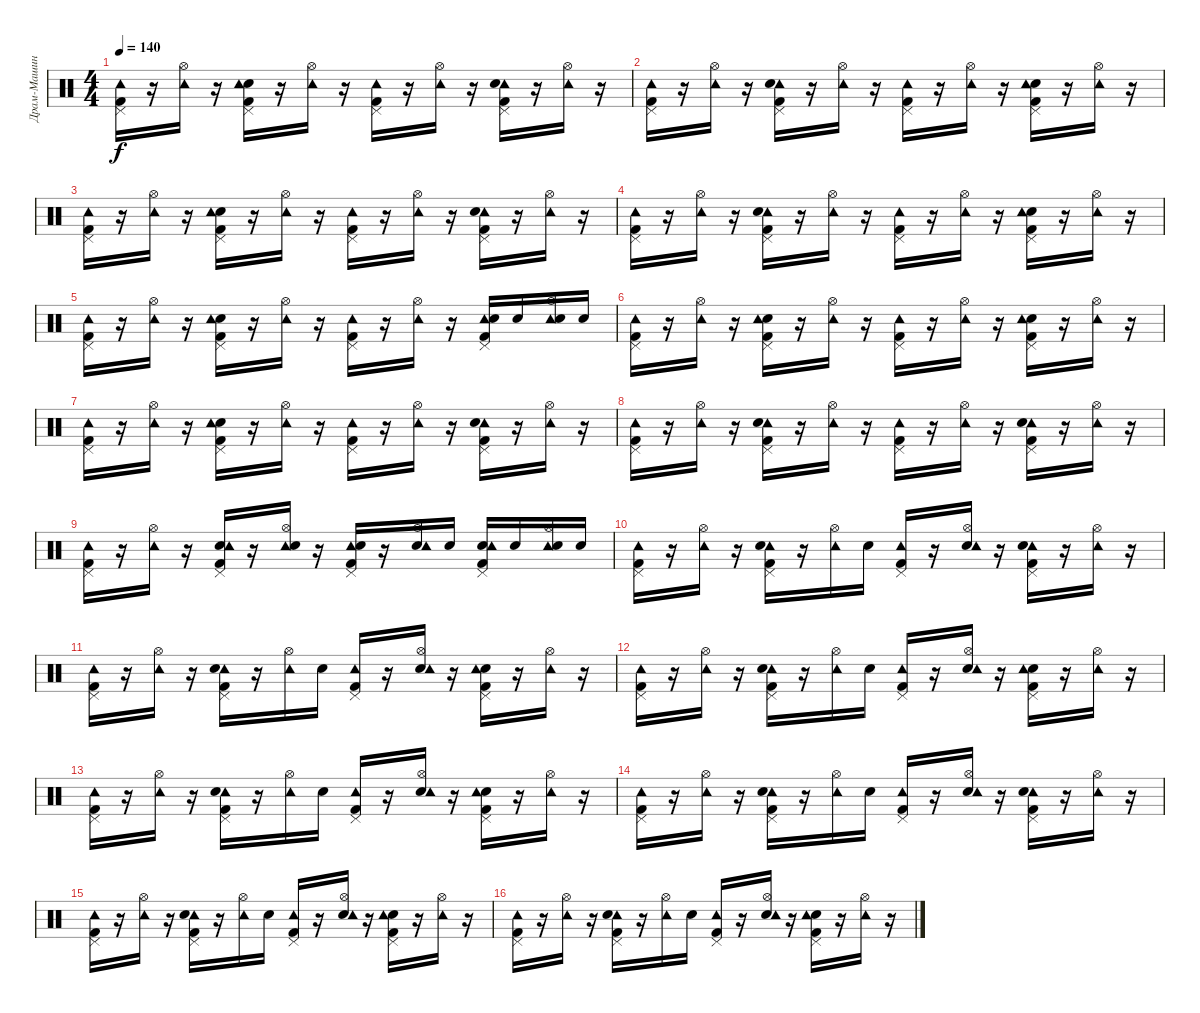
\track ("Драм-Машина" "Драм-Машин") {instrument percussion}
\staff {score}
\articulation defaults
\ts (4 4)
\tempo 140
\clef neutral
\ks c
("Pedal Hi-Hat (hit)" "Kick (hit) 2" "Tambourine (hit)").16{dy f} r.16 ("Hi-Hat (open)" "Tambourine (hit)").16 r.16 ("Pedal Hi-Hat (hit)" "Kick (hit) 2" "Snare (hit) 2" "Tambourine (hit)").16 r.16 ("Tambourine (hit)" "Hi-Hat (open)").16 r.16 ("Tambourine (hit)" "Pedal Hi-Hat (hit)" "Kick (hit) 2").16 r.16 ("Hi-Hat (open)" "Tambourine (hit)").16 r.16 ("Kick (hit) 2" "Tambourine (hit)" "Snare (hit) 2" "Pedal Hi-Hat (hit)").16 r.16 ("Tambourine (hit)" "Hi-Hat (open)").16 r.16 |
("Pedal Hi-Hat (hit)" "Tambourine (hit)" "Kick (hit) 2").16 r.16 ("Tambourine (hit)" "Hi-Hat (open)").16 r.16 ("Kick (hit) 2" "Tambourine (hit)" "Snare (hit) 2" "Pedal Hi-Hat (hit)").16 r.16 ("Hi-Hat (open)" "Tambourine (hit)").16 r.16 ("Pedal Hi-Hat (hit)" "Tambourine (hit)" "Kick (hit) 2").16 r.16 ("Hi-Hat (open)" "Tambourine (hit)").16 r.16 ("Kick (hit) 2" "Snare (hit) 2" "Pedal Hi-Hat (hit)" "Tambourine (hit)").16 r.16 ("Hi-Hat (open)" "Tambourine (hit)").16 r.16 |
("Pedal Hi-Hat (hit)" "Kick (hit) 2" "Tambourine (hit)").16 r.16 ("Hi-Hat (open)" "Tambourine (hit)").16 r.16 ("Pedal Hi-Hat (hit)" "Kick (hit) 2" "Snare (hit) 2" "Tambourine (hit)").16 r.16 ("Tambourine (hit)" "Hi-Hat (open)").16 r.16 ("Tambourine (hit)" "Pedal Hi-Hat (hit)" "Kick (hit) 2").16 r.16 ("Hi-Hat (open)" "Tambourine (hit)").16 r.16 ("Kick (hit) 2" "Tambourine (hit)" "Snare (hit) 2" "Pedal Hi-Hat (hit)").16 r.16 ("Tambourine (hit)" "Hi-Hat (open)").16 r.16 |
("Pedal Hi-Hat (hit)" "Tambourine (hit)" "Kick (hit) 2").16 r.16 ("Tambourine (hit)" "Hi-Hat (open)").16 r.16 ("Kick (hit) 2" "Tambourine (hit)" "Snare (hit) 2" "Pedal Hi-Hat (hit)").16 r.16 ("Hi-Hat (open)" "Tambourine (hit)").16 r.16 ("Pedal Hi-Hat (hit)" "Tambourine (hit)" "Kick (hit) 2").16 r.16 ("Hi-Hat (open)" "Tambourine (hit)").16 r.16 ("Kick (hit) 2" "Snare (hit) 2" "Pedal Hi-Hat (hit)" "Tambourine (hit)").16 r.16 ("Hi-Hat (open)" "Tambourine (hit)").16 r.16 |
("Pedal Hi-Hat (hit)" "Kick (hit) 2" "Tambourine (hit)").16 r.16 ("Hi-Hat (open)" "Tambourine (hit)").16 r.16 ("Pedal Hi-Hat (hit)" "Kick (hit) 2" "Snare (hit) 2" "Tambourine (hit)").16 r.16 ("Tambourine (hit)" "Hi-Hat (open)").16 r.16 ("Tambourine (hit)" "Pedal Hi-Hat (hit)" "Kick (hit) 2").16 r.16 ("Hi-Hat (open)" "Tambourine (hit)").16 r.16 ("Kick (hit) 2" "Tambourine (hit)" "Snare (hit) 2" "Pedal Hi-Hat (hit)").16 "Snare (hit) 2".16 ("Hi-Hat (open)" "Tambourine (hit)" "Snare (hit) 2").16 "Snare (hit) 2".16 |
("Pedal Hi-Hat (hit)" "Tambourine (hit)" "Kick (hit) 2").16 r.16 ("Tambourine (hit)" "Hi-Hat (open)").16 r.16 ("Snare (hit) 2" "Kick (hit) 2" "Tambourine (hit)" "Pedal Hi-Hat (hit)").16 r.16 ("Hi-Hat (open)" "Tambourine (hit)").16 r.16 ("Kick (hit) 2" "Pedal Hi-Hat (hit)" "Tambourine (hit)").16 r.16 ("Hi-Hat (open)" "Tambourine (hit)").16 r.16 ("Kick (hit) 2" "Snare (hit) 2" "Pedal Hi-Hat (hit)" "Tambourine (hit)").16 r.16 ("Tambourine (hit)" "Hi-Hat (open)").16 r.16 |
("Pedal Hi-Hat (hit)" "Kick (hit) 2" "Tambourine (hit)").16 r.16 ("Hi-Hat (open)" "Tambourine (hit)").16 r.16 ("Kick (hit) 2" "Pedal Hi-Hat (hit)" "Snare (hit) 2" "Tambourine (hit)").16 r.16 ("Tambourine (hit)" "Hi-Hat (open)").16 r.16 ("Kick (hit) 2" "Tambourine (hit)" "Pedal Hi-Hat (hit)").16 r.16 ("Hi-Hat (open)" "Tambourine (hit)").16 r.16 ("Kick (hit) 2" "Pedal Hi-Hat (hit)" "Tambourine (hit)" "Snare (hit) 2").16 r.16 ("Tambourine (hit)" "Hi-Hat (open)").16 r.16 |
("Pedal Hi-Hat (hit)" "Tambourine (hit)" "Kick (hit) 2").16 r.16 ("Hi-Hat (open)" "Tambourine (hit)").16 r.16 ("Kick (hit) 2" "Tambourine (hit)" "Snare (hit) 2" "Pedal Hi-Hat (hit)").16 r.16 ("Hi-Hat (open)" "Tambourine (hit)").16 r.16 ("Tambourine (hit)" "Pedal Hi-Hat (hit)" "Kick (hit) 2").16 r.16 ("Hi-Hat (open)" "Tambourine (hit)").16 r.16 ("Tambourine (hit)" "Kick (hit) 2" "Snare (hit) 2" "Pedal Hi-Hat (hit)").16 r.16 ("Hi-Hat (open)" "Tambourine (hit)").16 r.16 |
("Pedal Hi-Hat (hit)" "Kick (hit) 2" "Tambourine (hit)").16 r.16 ("Tambourine (hit)" "Hi-Hat (open)").16 r.16 ("Pedal Hi-Hat (hit)" "Kick (hit) 2" "Snare (hit) 2" "Tambourine (hit)").16 r.16 ("Hi-Hat (open)" "Tambourine (hit)" "Snare (hit) 2").16 r.16 ("Tambourine (hit)" "Pedal Hi-Hat (hit)" "Kick (hit) 2" "Snare (hit) 2").16 r.16 ("Snare (hit) 2" "Hi-Hat (open)" "Tambourine (hit)").16 "Snare (hit) 2".16 ("Snare (hit) 2" "Kick (hit) 2" "Tambourine (hit)" "Pedal Hi-Hat (hit)").16 "Snare (hit) 2".16 ("Tambourine (hit)" "Hi-Hat (open)" "Snare (hit) 2").16 "Snare (hit) 2".16 |
("Tambourine (hit)" "Kick (hit) 2" "Pedal Hi-Hat (hit)").16 r.16 ("Tambourine (hit)" "Hi-Hat (open)").16 r.16 ("Kick (hit) 2" "Tambourine (hit)" "Pedal Hi-Hat (hit)" "Snare (hit) 2").16 r.16 ("Tambourine (hit)" "Hi-Hat (open)").16 "Snare (hit) 2".16 ("Tambourine (hit)" "Kick (hit) 2" "Pedal Hi-Hat (hit)").16 r.16 ("Snare (hit) 2" "Tambourine (hit)" "Hi-Hat (open)").16 r.16 ("Pedal Hi-Hat (hit)" "Kick (hit) 2" "Tambourine (hit)" "Snare (hit) 2").16 r.16 ("Tambourine (hit)" "Hi-Hat (open)").16 r.16 |
("Tambourine (hit)" "Pedal Hi-Hat (hit)" "Kick (hit) 2").16 r.16 ("Tambourine (hit)" "Hi-Hat (open)").16 r.16 ("Kick (hit) 2" "Tambourine (hit)" "Pedal Hi-Hat (hit)" "Snare (hit) 2").16 r.16 ("Hi-Hat (open)" "Tambourine (hit)").16 "Snare (hit) 2".16 ("Pedal Hi-Hat (hit)" "Tambourine (hit)" "Kick (hit) 2").16 r.16 ("Snare (hit) 2" "Hi-Hat (open)" "Tambourine (hit)").16 r.16 ("Snare (hit) 2" "Tambourine (hit)" "Kick (hit) 2" "Pedal Hi-Hat (hit)").16 r.16 ("Tambourine (hit)" "Hi-Hat (open)").16 r.16 |
("Tambourine (hit)" "Kick (hit) 2" "Pedal Hi-Hat (hit)").16 r.16 ("Tambourine (hit)" "Hi-Hat (open)").16 r.16 ("Tambourine (hit)" "Kick (hit) 2" "Pedal Hi-Hat (hit)" "Snare (hit) 2").16 r.16 ("Tambourine (hit)" "Hi-Hat (open)").16 "Snare (hit) 2".16 ("Pedal Hi-Hat (hit)" "Kick (hit) 2" "Tambourine (hit)").16 r.16 ("Snare (hit) 2" "Tambourine (hit)" "Hi-Hat (open)").16 r.16 ("Snare (hit) 2" "Kick (hit) 2" "Pedal Hi-Hat (hit)" "Tambourine (hit)").16 r.16 ("Tambourine (hit)" "Hi-Hat (open)").16 r.16 |
("Tambourine (hit)" "Kick (hit) 2" "Pedal Hi-Hat (hit)").16 r.16 ("Tambourine (hit)" "Hi-Hat (open)").16 r.16 ("Pedal Hi-Hat (hit)" "Kick (hit) 2" "Tambourine (hit)" "Snare (hit) 2").16 r.16 ("Tambourine (hit)" "Hi-Hat (open)").16 "Snare (hit) 2".16 ("Pedal Hi-Hat (hit)" "Kick (hit) 2" "Tambourine (hit)").16 r.16 ("Snare (hit) 2" "Tambourine (hit)" "Hi-Hat (open)").16 r.16 ("Snare (hit) 2" "Kick (hit) 2" "Pedal Hi-Hat (hit)" "Tambourine (hit)").16 r.16 ("Hi-Hat (open)" "Tambourine (hit)").16 r.16 |
("Tambourine (hit)" "Kick (hit) 2" "Pedal Hi-Hat (hit)").16 r.16 ("Tambourine (hit)" "Hi-Hat (open)").16 r.16 ("Kick (hit) 2" "Tambourine (hit)" "Pedal Hi-Hat (hit)" "Snare (hit) 2").16 r.16 ("Tambourine (hit)" "Hi-Hat (open)").16 "Snare (hit) 2".16 ("Tambourine (hit)" "Kick (hit) 2" "Pedal Hi-Hat (hit)").16 r.16 ("Snare (hit) 2" "Tambourine (hit)" "Hi-Hat (open)").16 r.16 ("Pedal Hi-Hat (hit)" "Kick (hit) 2" "Tambourine (hit)" "Snare (hit) 2").16 r.16 ("Tambourine (hit)" "Hi-Hat (open)").16 r.16 |
("Tambourine (hit)" "Pedal Hi-Hat (hit)" "Kick (hit) 2").16 r.16 ("Tambourine (hit)" "Hi-Hat (open)").16 r.16 ("Kick (hit) 2" "Tambourine (hit)" "Pedal Hi-Hat (hit)" "Snare (hit) 2").16 r.16 ("Hi-Hat (open)" "Tambourine (hit)").16 "Snare (hit) 2".16 ("Pedal Hi-Hat (hit)" "Tambourine (hit)" "Kick (hit) 2").16 r.16 ("Snare (hit) 2" "Hi-Hat (open)" "Tambourine (hit)").16 r.16 ("Snare (hit) 2" "Tambourine (hit)" "Kick (hit) 2" "Pedal Hi-Hat (hit)").16 r.16 ("Tambourine (hit)" "Hi-Hat (open)").16 r.16 |
("Tambourine (hit)" "Kick (hit) 2" "Pedal Hi-Hat (hit)").16 r.16 ("Tambourine (hit)" "Hi-Hat (open)").16 r.16 ("Tambourine (hit)" "Kick (hit) 2" "Pedal Hi-Hat (hit)" "Snare (hit) 2").16 r.16 ("Tambourine (hit)" "Hi-Hat (open)").16 "Snare (hit) 2".16 ("Pedal Hi-Hat (hit)" "Kick (hit) 2" "Tambourine (hit)").16 r.16 ("Snare (hit) 2" "Tambourine (hit)" "Hi-Hat (open)").16 r.16 ("Snare (hit) 2" "Kick (hit) 2" "Pedal Hi-Hat (hit)" "Tambourine (hit)").16 r.16 ("Tambourine (hit)" "Hi-Hat (open)").16 r.16
